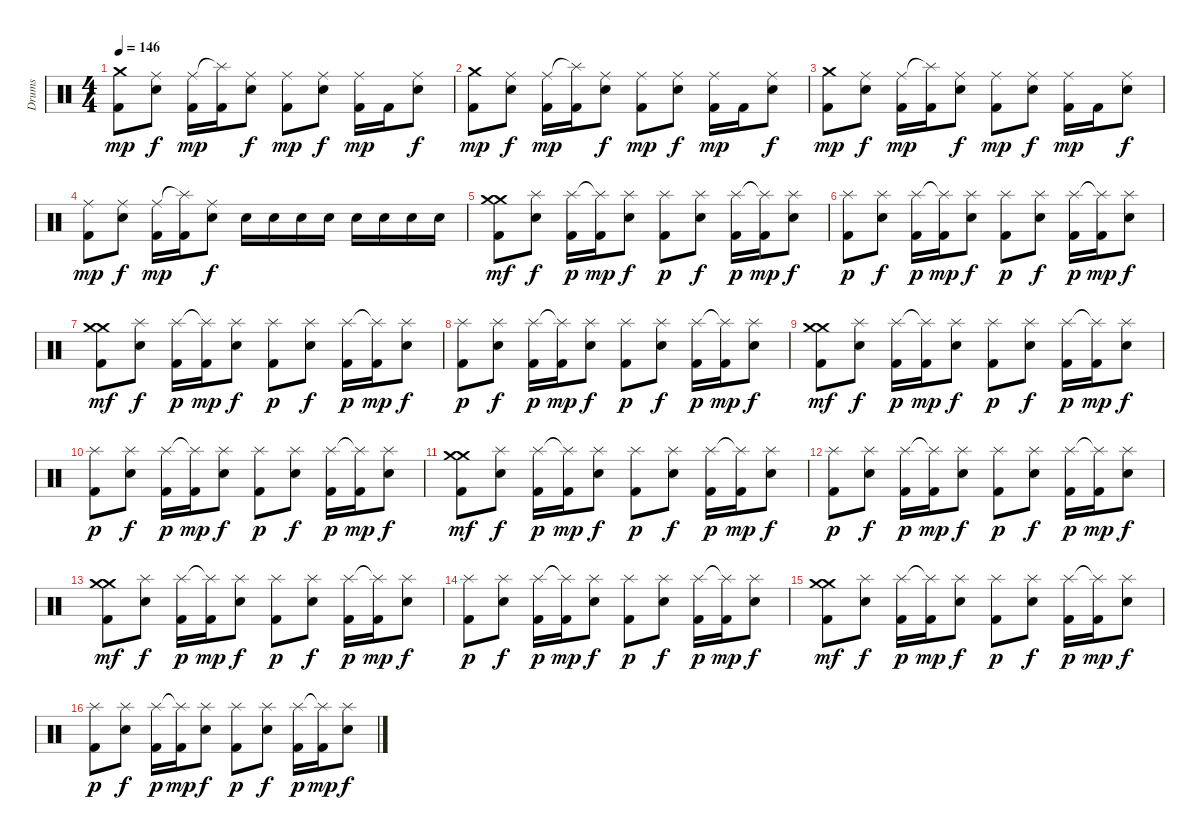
\track ("Drums" "Drums") {instrument percussion}
\staff {score}
\articulation defaults
\ts (4 4)
\tempo 146
\clef neutral
\ks c
("Crash medium (hit)" "Kick (hit) 2").8{dy mp} ("Ride (middle)" "Snare (hit) 2").8{dy f} ("Ride (middle)" "Kick (hit) 2").16{dy mp} ("Splash (hit)"{t} "Kick (hit) 2").16 ("Ride (middle)" "Snare (hit) 2").8{dy f} ("Ride (middle)" "Kick (hit) 2").8{dy mp} ("Ride (middle)" "Snare (hit) 2").8{dy f} ("Ride (middle)" "Kick (hit) 2").16{dy mp} "Kick (hit) 2".16 ("Ride (middle)" "Snare (hit) 2").8{dy f} |
("Crash medium (hit)" "Kick (hit) 2").8{dy mp} ("Ride (middle)" "Snare (hit) 2").8{dy f} ("Ride (middle)" "Kick (hit) 2").16{dy mp} ("Splash (hit)"{t} "Kick (hit) 2").16 ("Ride (middle)" "Snare (hit) 2").8{dy f} ("Ride (middle)" "Kick (hit) 2").8{dy mp} ("Ride (middle)" "Snare (hit) 2").8{dy f} ("Ride (middle)" "Kick (hit) 2").16{dy mp} "Kick (hit) 2".16 ("Ride (middle)" "Snare (hit) 2").8{dy f} |
("Crash medium (hit)" "Kick (hit) 2").8{dy mp} ("Ride (middle)" "Snare (hit) 2").8{dy f} ("Ride (middle)" "Kick (hit) 2").16{dy mp} ("Splash (hit)"{t} "Kick (hit) 2").16 ("Ride (middle)" "Snare (hit) 2").8{dy f} ("Ride (middle)" "Kick (hit) 2").8{dy mp} ("Ride (middle)" "Snare (hit) 2").8{dy f} ("Ride (middle)" "Kick (hit) 2").16{dy mp} "Kick (hit) 2".16 ("Ride (middle)" "Snare (hit) 2").8{dy f} |
("Ride (middle)" "Kick (hit) 2").8{dy mp} ("Ride (middle)" "Snare (hit) 2").8{dy f} ("Ride (middle)" "Kick (hit) 2").16{dy mp} ("Splash (hit)"{t} "Kick (hit) 2").16 ("Ride (middle)" "Snare (hit) 2").8{dy f} "Snare (hit) 2".16 "Snare (hit) 2".16 "Snare (hit) 2".16 "Snare (hit) 2".16 "Snare (hit) 2".16 "Snare (hit) 2".16 "Snare (hit) 2".16 "Snare (hit) 2".16 |
("Crash medium (hit)" "Crash medium (hit)" "Kick (hit) 2").8{dy mf} ("Splash (hit)" "Snare (hit) 2").8{dy f} ("Splash (hit)" "Kick (hit) 2").16{dy p} ("Splash (hit)"{t} "Kick (hit) 2").16{dy mp} ("Splash (hit)" "Snare (hit) 2").8{dy f} ("Splash (hit)" "Kick (hit) 2").8{dy p} ("Splash (hit)" "Snare (hit) 2").8{dy f} ("Splash (hit)" "Kick (hit) 2").16{dy p} ("Splash (hit)"{t} "Kick (hit) 2").16{dy mp} ("Splash (hit)" "Snare (hit) 2").8{dy f} |
("Splash (hit)" "Kick (hit) 2").8{dy p} ("Splash (hit)" "Snare (hit) 2").8{dy f} ("Splash (hit)" "Kick (hit) 2").16{dy p} ("Splash (hit)"{t} "Kick (hit) 2").16{dy mp} ("Splash (hit)" "Snare (hit) 2").8{dy f} ("Splash (hit)" "Kick (hit) 2").8{dy p} ("Splash (hit)" "Snare (hit) 2").8{dy f} ("Splash (hit)" "Kick (hit) 2").16{dy p} ("Splash (hit)"{t} "Kick (hit) 2").16{dy mp} ("Splash (hit)" "Snare (hit) 2").8{dy f} |
("Crash medium (hit)" "Crash medium (hit)" "Kick (hit) 2").8{dy mf} ("Splash (hit)" "Snare (hit) 2").8{dy f} ("Splash (hit)" "Kick (hit) 2").16{dy p} ("Splash (hit)"{t} "Kick (hit) 2").16{dy mp} ("Splash (hit)" "Snare (hit) 2").8{dy f} ("Splash (hit)" "Kick (hit) 2").8{dy p} ("Splash (hit)" "Snare (hit) 2").8{dy f} ("Splash (hit)" "Kick (hit) 2").16{dy p} ("Splash (hit)"{t} "Kick (hit) 2").16{dy mp} ("Splash (hit)" "Snare (hit) 2").8{dy f} |
("Splash (hit)" "Kick (hit) 2").8{dy p} ("Splash (hit)" "Snare (hit) 2").8{dy f} ("Splash (hit)" "Kick (hit) 2").16{dy p} ("Splash (hit)"{t} "Kick (hit) 2").16{dy mp} ("Splash (hit)" "Snare (hit) 2").8{dy f} ("Splash (hit)" "Kick (hit) 2").8{dy p} ("Splash (hit)" "Snare (hit) 2").8{dy f} ("Splash (hit)" "Kick (hit) 2").16{dy p} ("Splash (hit)"{t} "Kick (hit) 2").16{dy mp} ("Splash (hit)" "Snare (hit) 2").8{dy f} |
("Crash medium (hit)" "Crash medium (hit)" "Kick (hit) 2").8{dy mf} ("Splash (hit)" "Snare (hit) 2").8{dy f} ("Splash (hit)" "Kick (hit) 2").16{dy p} ("Splash (hit)"{t} "Kick (hit) 2").16{dy mp} ("Splash (hit)" "Snare (hit) 2").8{dy f} ("Splash (hit)" "Kick (hit) 2").8{dy p} ("Splash (hit)" "Snare (hit) 2").8{dy f} ("Splash (hit)" "Kick (hit) 2").16{dy p} ("Splash (hit)"{t} "Kick (hit) 2").16{dy mp} ("Splash (hit)" "Snare (hit) 2").8{dy f} |
("Splash (hit)" "Kick (hit) 2").8{dy p} ("Splash (hit)" "Snare (hit) 2").8{dy f} ("Splash (hit)" "Kick (hit) 2").16{dy p} ("Splash (hit)"{t} "Kick (hit) 2").16{dy mp} ("Splash (hit)" "Snare (hit) 2").8{dy f} ("Splash (hit)" "Kick (hit) 2").8{dy p} ("Splash (hit)" "Snare (hit) 2").8{dy f} ("Splash (hit)" "Kick (hit) 2").16{dy p} ("Splash (hit)"{t} "Kick (hit) 2").16{dy mp} ("Splash (hit)" "Snare (hit) 2").8{dy f} |
("Crash medium (hit)" "Crash medium (hit)" "Kick (hit) 2").8{dy mf} ("Splash (hit)" "Snare (hit) 2").8{dy f} ("Splash (hit)" "Kick (hit) 2").16{dy p} ("Splash (hit)"{t} "Kick (hit) 2").16{dy mp} ("Splash (hit)" "Snare (hit) 2").8{dy f} ("Splash (hit)" "Kick (hit) 2").8{dy p} ("Splash (hit)" "Snare (hit) 2").8{dy f} ("Splash (hit)" "Kick (hit) 2").16{dy p} ("Splash (hit)"{t} "Kick (hit) 2").16{dy mp} ("Splash (hit)" "Snare (hit) 2").8{dy f} |
("Splash (hit)" "Kick (hit) 2").8{dy p} ("Splash (hit)" "Snare (hit) 2").8{dy f} ("Splash (hit)" "Kick (hit) 2").16{dy p} ("Splash (hit)"{t} "Kick (hit) 2").16{dy mp} ("Splash (hit)" "Snare (hit) 2").8{dy f} ("Splash (hit)" "Kick (hit) 2").8{dy p} ("Splash (hit)" "Snare (hit) 2").8{dy f} ("Splash (hit)" "Kick (hit) 2").16{dy p} ("Splash (hit)"{t} "Kick (hit) 2").16{dy mp} ("Splash (hit)" "Snare (hit) 2").8{dy f} |
("Crash medium (hit)" "Crash medium (hit)" "Kick (hit) 2").8{dy mf} ("Splash (hit)" "Snare (hit) 2").8{dy f} ("Splash (hit)" "Kick (hit) 2").16{dy p} ("Splash (hit)"{t} "Kick (hit) 2").16{dy mp} ("Splash (hit)" "Snare (hit) 2").8{dy f} ("Splash (hit)" "Kick (hit) 2").8{dy p} ("Splash (hit)" "Snare (hit) 2").8{dy f} ("Splash (hit)" "Kick (hit) 2").16{dy p} ("Splash (hit)"{t} "Kick (hit) 2").16{dy mp} ("Splash (hit)" "Snare (hit) 2").8{dy f} |
("Splash (hit)" "Kick (hit) 2").8{dy p} ("Splash (hit)" "Snare (hit) 2").8{dy f} ("Splash (hit)" "Kick (hit) 2").16{dy p} ("Splash (hit)"{t} "Kick (hit) 2").16{dy mp} ("Splash (hit)" "Snare (hit) 2").8{dy f} ("Splash (hit)" "Kick (hit) 2").8{dy p} ("Splash (hit)" "Snare (hit) 2").8{dy f} ("Splash (hit)" "Kick (hit) 2").16{dy p} ("Splash (hit)"{t} "Kick (hit) 2").16{dy mp} ("Splash (hit)" "Snare (hit) 2").8{dy f} |
("Crash medium (hit)" "Crash medium (hit)" "Kick (hit) 2").8{dy mf} ("Splash (hit)" "Snare (hit) 2").8{dy f} ("Splash (hit)" "Kick (hit) 2").16{dy p} ("Splash (hit)"{t} "Kick (hit) 2").16{dy mp} ("Splash (hit)" "Snare (hit) 2").8{dy f} ("Splash (hit)" "Kick (hit) 2").8{dy p} ("Splash (hit)" "Snare (hit) 2").8{dy f} ("Splash (hit)" "Kick (hit) 2").16{dy p} ("Splash (hit)"{t} "Kick (hit) 2").16{dy mp} ("Splash (hit)" "Snare (hit) 2").8{dy f} |
("Splash (hit)" "Kick (hit) 2").8{dy p} ("Splash (hit)" "Snare (hit) 2").8{dy f} ("Splash (hit)" "Kick (hit) 2").16{dy p} ("Splash (hit)"{t} "Kick (hit) 2").16{dy mp} ("Splash (hit)" "Snare (hit) 2").8{dy f} ("Splash (hit)" "Kick (hit) 2").8{dy p} ("Splash (hit)" "Snare (hit) 2").8{dy f} ("Splash (hit)" "Kick (hit) 2").16{dy p} ("Splash (hit)"{t} "Kick (hit) 2").16{dy mp} ("Splash (hit)" "Snare (hit) 2").8{dy f}
